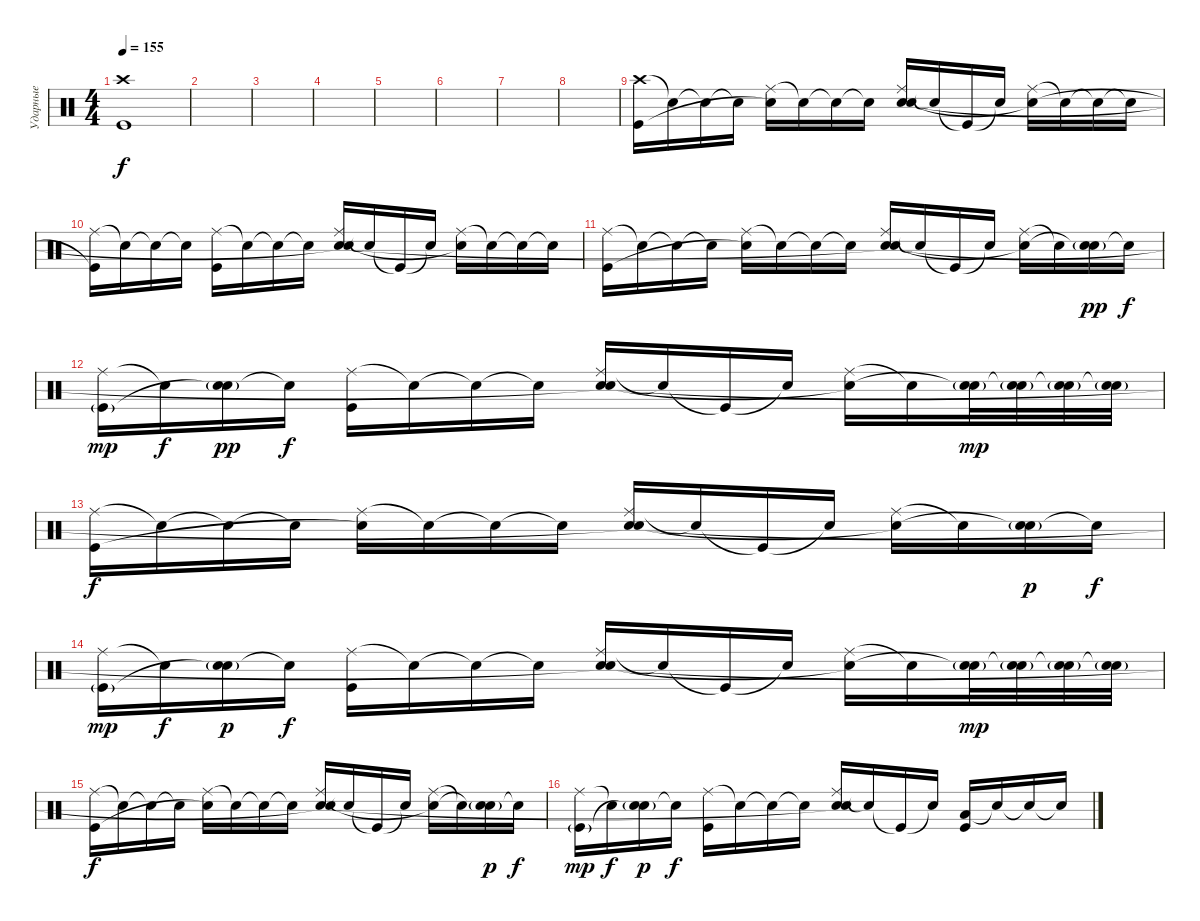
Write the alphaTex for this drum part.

\track ("Ударные" "Ударные") {instrument percussion}
\staff {score}
\articulation defaults
\ts (4 4)
\tempo 155
\clef neutral
\ks c
("Crash high (hit)" "Kick (hit)").1{dy f} |
|
|
|
|
|
|
|
("Crash high (hit)" "Kick (hit)").16 "Snare (hit)"{t}.16 "Snare (hit)"{t}.16 "Snare (hit)"{t}.16 ("Ride (middle)" "Snare (hit)"{t}).16 "Snare (hit)"{t}.16 "Snare (hit)"{t}.16 "Snare (hit)"{t}.16 ("Ride (middle)" "Electric Snare (hit)" "Snare (hit)").16 "Snare (hit)"{t}.16 "Kick (hit)"{t}.16 "Snare (hit)"{t}.16 ("Ride (middle)" "Snare (hit)"{t}).16 "Snare (hit)"{t}.16 "Snare (hit)"{t}.16 "Snare (hit)"{t}.16 |
("Ride (middle)" "Kick (hit)"{t}).16 "Snare (hit)"{t}.16 "Snare (hit)"{t}.16 "Snare (hit)"{t}.16 ("Ride (middle)" "Kick (hit)").16 "Snare (hit)"{t}.16 "Snare (hit)"{t}.16 "Snare (hit)"{t}.16 ("Ride (middle)" "Electric Snare (hit)" "Snare (hit)"{t}).16 "Snare (hit)"{t}.16 "Kick (hit)"{t}.16 "Snare (hit)"{t}.16 ("Ride (middle)" "Snare (hit)"{t}).16 "Snare (hit)"{t}.16 "Snare (hit)"{t}.16 "Snare (hit)"{t}.16 |
("Ride (middle)" "Kick (hit)").16 "Snare (hit)"{t}.16 "Snare (hit)"{t}.16 "Snare (hit)"{t}.16 ("Ride (middle)" "Snare (hit)"{t}).16 "Snare (hit)"{t}.16 "Snare (hit)"{t}.16 "Snare (hit)"{t}.16 ("Ride (middle)" "Electric Snare (hit)" "Snare (hit)"{t}).16 "Snare (hit)"{t}.16 "Kick (hit)"{t}.16 "Snare (hit)"{t}.16 ("Ride (middle)" "Snare (hit)"{t}).16 "Snare (hit)"{t}.16 ("Electric Snare (hit)"{g} "Snare (hit)"{t}).16{dy pp} "Snare (hit)"{t}.16{dy f} |
("Ride (middle)" "Kick (hit)"{g}).16{dy mp} "Snare (hit)"{t}.16{dy f} ("Electric Snare (hit)"{g} "Snare (hit)"{t}).16{dy pp} "Snare (hit)"{t}.16{dy f} ("Ride (middle)" "Kick (hit)").16 "Snare (hit)"{t}.16 "Snare (hit)"{t}.16 "Snare (hit)"{t}.16 ("Ride (middle)" "Electric Snare (hit)" "Snare (hit)"{t}).16 "Snare (hit)"{t}.16 "Kick (hit)"{t}.16 "Snare (hit)"{t}.16 ("Ride (middle)" "Snare (hit)"{t}).16 "Snare (hit)"{t}.16 ("Electric Snare (hit)"{g} "Snare (hit)"{t}).32{dy mp} ("Electric Snare (hit)"{g} "Snare (hit)"{t}).32 ("Electric Snare (hit)"{g} "Snare (hit)"{t}).32 ("Electric Snare (hit)"{g} "Snare (hit)"{t}).32 |
("Ride (middle)" "Kick (hit)").16{dy f} "Snare (hit)"{t}.16 "Snare (hit)"{t}.16 "Snare (hit)"{t}.16 ("Ride (middle)" "Snare (hit)"{t}).16 "Snare (hit)"{t}.16 "Snare (hit)"{t}.16 "Snare (hit)"{t}.16 ("Ride (middle)" "Electric Snare (hit)" "Snare (hit)"{t}).16 "Snare (hit)"{t}.16 "Kick (hit)"{t}.16 "Snare (hit)"{t}.16 ("Ride (middle)" "Snare (hit)"{t}).16 "Snare (hit)"{t}.16 ("Electric Snare (hit)"{g} "Snare (hit)"{t}).16{dy p} "Snare (hit)"{t}.16{dy f} |
("Ride (middle)" "Kick (hit)"{g}).16{dy mp} "Snare (hit)"{t}.16{dy f} ("Electric Snare (hit)"{g} "Snare (hit)"{t}).16{dy p} "Snare (hit)"{t}.16{dy f} ("Ride (middle)" "Kick (hit)").16 "Snare (hit)"{t}.16 "Snare (hit)"{t}.16 "Snare (hit)"{t}.16 ("Ride (middle)" "Electric Snare (hit)" "Snare (hit)"{t}).16 "Snare (hit)"{t}.16 "Kick (hit)"{t}.16 "Snare (hit)"{t}.16 ("Ride (middle)" "Snare (hit)"{t}).16 "Snare (hit)"{t}.16 ("Electric Snare (hit)"{g} "Snare (hit)"{t}).32{dy mp} ("Electric Snare (hit)"{g} "Snare (hit)"{t}).32 ("Electric Snare (hit)"{g} "Snare (hit)"{t}).32 ("Electric Snare (hit)"{g} "Snare (hit)"{t}).32 |
("Ride (middle)" "Kick (hit)").16{dy f} "Snare (hit)"{t}.16 "Snare (hit)"{t}.16 "Snare (hit)"{t}.16 ("Ride (middle)" "Snare (hit)"{t}).16 "Snare (hit)"{t}.16 "Snare (hit)"{t}.16 "Snare (hit)"{t}.16 ("Ride (middle)" "Electric Snare (hit)" "Snare (hit)"{t}).16 "Snare (hit)"{t}.16 "Kick (hit)"{t}.16 "Snare (hit)"{t}.16 ("Ride (middle)" "Snare (hit)"{t}).16 "Snare (hit)"{t}.16 ("Electric Snare (hit)"{g} "Snare (hit)"{t}).16{dy p} "Snare (hit)"{t}.16{dy f} |
("Ride (middle)" "Kick (hit)"{g}).16{dy mp} "Snare (hit)"{t}.16{dy f} ("Electric Snare (hit)"{g} "Snare (hit)"{t}).16{dy p} "Snare (hit)"{t}.16{dy f} ("Ride (middle)" "Kick (hit)").16 "Snare (hit)"{t}.16 "Snare (hit)"{t}.16 "Snare (hit)"{t}.16 ("Ride (middle)" "Electric Snare (hit)" "Snare (hit)"{t}).16 "Snare (hit)"{t}.16 "Kick (hit)"{t}.16 "Snare (hit)"{t}.16 ("Low Tom (hit)" "Kick (hit)").16 "Snare (hit)"{t}.16 "Snare (hit)"{t}.16 "Snare (hit)"{t}.16
